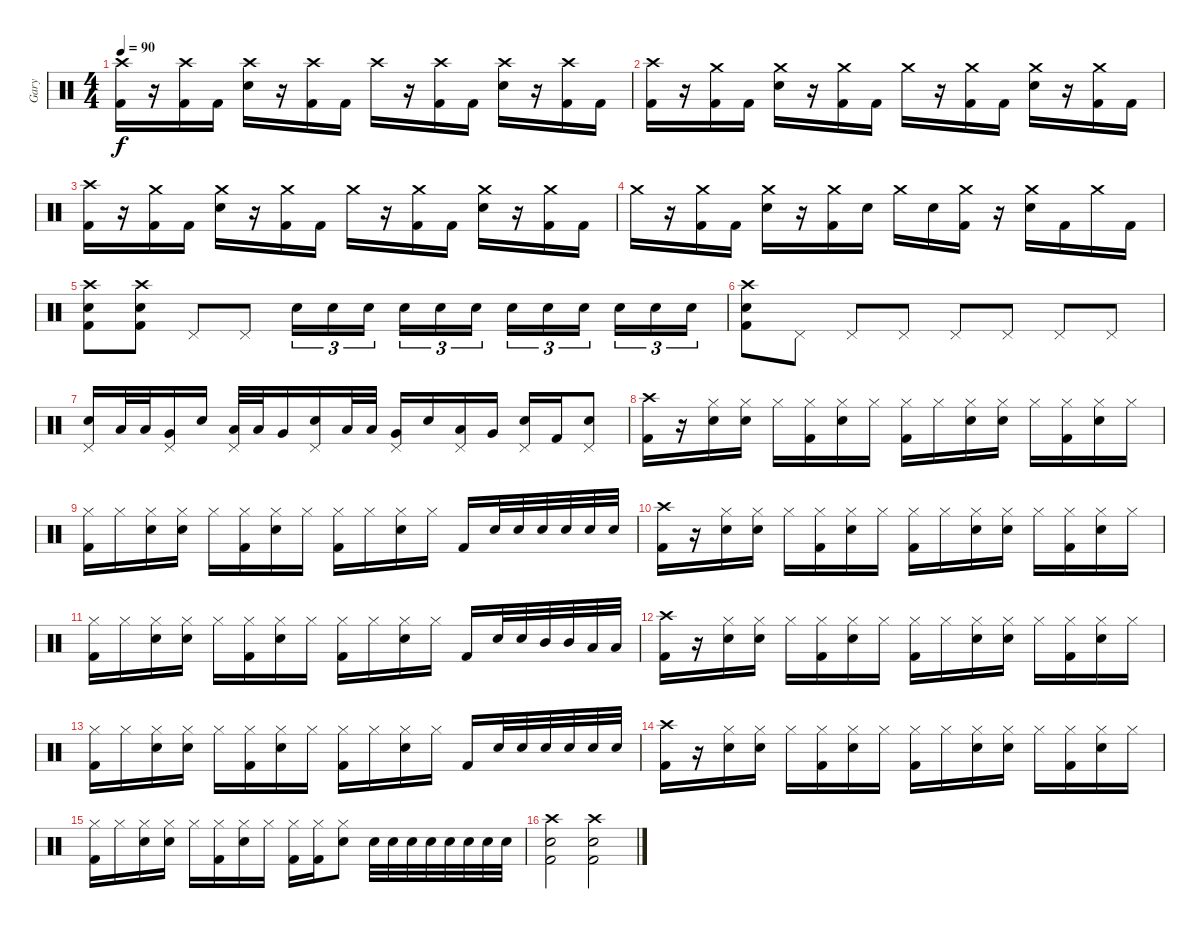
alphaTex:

\track ("Gary" "Gary") {instrument percussion}
\staff {score}
\articulation defaults
\ts (4 4)
\tempo 90
\clef neutral
\ks c
("Crash high (hit)" "Kick (hit) 2").16{dy f} r.16 ("Crash high (hit)" "Kick (hit) 2").16 "Kick (hit) 2".16 ("Crash high (hit)" "Electric Snare (hit)").16 r.16 ("Crash high (hit)" "Kick (hit) 2").16 "Kick (hit) 2".16 "Crash high (hit)".16 r.16 ("Crash high (hit)" "Kick (hit) 2").16 "Kick (hit) 2".16 ("Crash high (hit)" "Electric Snare (hit)").16 r.16 ("Crash high (hit)" "Kick (hit) 2").16 "Kick (hit) 2".16 |
("Crash high (hit)" "Kick (hit) 2").16 r.16 ("Crash medium (hit)" "Kick (hit) 2").16 "Kick (hit) 2".16 ("Crash medium (hit)" "Electric Snare (hit)").16 r.16 ("Crash medium (hit)" "Kick (hit) 2").16 "Kick (hit) 2".16 "Crash medium (hit)".16 r.16 ("Crash medium (hit)" "Kick (hit) 2").16 "Kick (hit) 2".16 ("Crash medium (hit)" "Electric Snare (hit)").16 r.16 ("Crash medium (hit)" "Kick (hit) 2").16 "Kick (hit) 2".16 |
("Crash high (hit)" "Kick (hit) 2").16 r.16 ("Crash medium (hit)" "Kick (hit) 2").16 "Kick (hit) 2".16 ("Crash medium (hit)" "Electric Snare (hit)").16 r.16 ("Crash medium (hit)" "Kick (hit) 2").16 "Kick (hit) 2".16 "Crash medium (hit)".16 r.16 ("Crash medium (hit)" "Kick (hit) 2").16 "Kick (hit) 2".16 ("Crash medium (hit)" "Electric Snare (hit)").16 r.16 ("Crash medium (hit)" "Kick (hit) 2").16 "Kick (hit) 2".16 |
"Crash medium (hit)".16 r.16 ("Crash medium (hit)" "Kick (hit) 2").16 "Kick (hit) 2".16 ("Crash medium (hit)" "Electric Snare (hit)").16 r.16 ("Crash medium (hit)" "Kick (hit) 2").16 "Electric Snare (hit)".16 "Crash medium (hit)".16 "Electric Snare (hit)".16 ("Crash medium (hit)" "Kick (hit) 2").16 r.16 ("Crash medium (hit)" "Electric Snare (hit)").16 "Kick (hit) 2".16 "Crash medium (hit)".16 "Kick (hit) 2".16 |
("Crash high (hit)" "Electric Snare (hit)" "Kick (hit) 2").8 ("Crash high (hit)" "Electric Snare (hit)" "Kick (hit) 2").8 "Pedal Hi-Hat (hit)".8 "Pedal Hi-Hat (hit)".8 "Electric Snare (hit)".16{tu (3 2)} "Electric Snare (hit)".16{tu (3 2)} "Electric Snare (hit)".16{tu (3 2)} "Electric Snare (hit)".16{tu (3 2)} "Electric Snare (hit)".16{tu (3 2)} "Electric Snare (hit)".16{tu (3 2)} "Electric Snare (hit)".16{tu (3 2)} "Electric Snare (hit)".16{tu (3 2)} "Electric Snare (hit)".16{tu (3 2)} "Electric Snare (hit)".16{tu (3 2)} "Electric Snare (hit)".16{tu (3 2)} "Electric Snare (hit)".16{tu (3 2)} |
("Crash high (hit)" "Electric Snare (hit)" "Kick (hit) 2").8 "Pedal Hi-Hat (hit)".8 "Pedal Hi-Hat (hit)".8 "Pedal Hi-Hat (hit)".8 "Pedal Hi-Hat (hit)".8 "Pedal Hi-Hat (hit)".8 "Pedal Hi-Hat (hit)".8 "Pedal Hi-Hat (hit)".8 |
("Pedal Hi-Hat (hit)" "Electric Snare (hit)").16 "Low Tom (hit)".32 "Low Tom (hit)".32 ("Pedal Hi-Hat (hit)" "Very Low Tom (hit)").16 "Electric Snare (hit)".16 ("Pedal Hi-Hat (hit)" "Low Tom (hit)").32 "Low Tom (hit)".32 "Very Low Tom (hit)".16 ("Pedal Hi-Hat (hit)" "Electric Snare (hit)").16 "Low Tom (hit)".32 "Low Tom (hit)".32 ("Pedal Hi-Hat (hit)" "Very Low Tom (hit)").16 "Electric Snare (hit)".16 ("Pedal Hi-Hat (hit)" "Low Tom (hit)").16 "Very Low Tom (hit)".16 ("Pedal Hi-Hat (hit)" "Electric Snare (hit)").16 "Kick (hit) 2".16 ("Pedal Hi-Hat (hit)" "Electric Snare (hit)").8 |
("Crash high (hit)" "Kick (hit) 2").16 r.16 ("Hi-Hat (closed)" "Electric Snare (hit)").16 ("Hi-Hat (closed)" "Electric Snare (hit)").16 "Hi-Hat (closed)".16 ("Hi-Hat (closed)" "Kick (hit) 2").16 ("Hi-Hat (closed)" "Electric Snare (hit)").16 "Hi-Hat (closed)".16 ("Hi-Hat (closed)" "Kick (hit) 2").16 "Hi-Hat (closed)".16 ("Hi-Hat (closed)" "Electric Snare (hit)").16 ("Hi-Hat (closed)" "Electric Snare (hit)").16 "Hi-Hat (closed)".16 ("Hi-Hat (closed)" "Kick (hit) 2").16 ("Hi-Hat (closed)" "Electric Snare (hit)").16 "Hi-Hat (closed)".16 |
("Hi-Hat (closed)" "Kick (hit) 2").16 "Hi-Hat (closed)".16 ("Hi-Hat (closed)" "Electric Snare (hit)").16 ("Hi-Hat (closed)" "Electric Snare (hit)").16 "Hi-Hat (closed)".16 ("Hi-Hat (closed)" "Kick (hit) 2").16 ("Hi-Hat (closed)" "Electric Snare (hit)").16 "Hi-Hat (closed)".16 ("Hi-Hat (closed)" "Kick (hit) 2").16 "Hi-Hat (closed)".16 ("Hi-Hat (closed)" "Electric Snare (hit)").16 "Hi-Hat (closed)".16 "Kick (hit) 2".16 "Electric Snare (hit)".32 "Electric Snare (hit)".32 "Electric Snare (hit)".32 "Electric Snare (hit)".32 "Electric Snare (hit)".32 "Electric Snare (hit)".32 |
("Crash high (hit)" "Kick (hit) 2").16 r.16 ("Hi-Hat (closed)" "Electric Snare (hit)").16 ("Hi-Hat (closed)" "Electric Snare (hit)").16 "Hi-Hat (closed)".16 ("Hi-Hat (closed)" "Kick (hit) 2").16 ("Hi-Hat (closed)" "Electric Snare (hit)").16 "Hi-Hat (closed)".16 ("Hi-Hat (closed)" "Kick (hit) 2").16 "Hi-Hat (closed)".16 ("Hi-Hat (closed)" "Electric Snare (hit)").16 ("Hi-Hat (closed)" "Electric Snare (hit)").16 "Hi-Hat (closed)".16 ("Hi-Hat (closed)" "Kick (hit) 2").16 ("Hi-Hat (closed)" "Electric Snare (hit)").16 "Hi-Hat (closed)".16 |
("Hi-Hat (closed)" "Kick (hit) 2").16 "Hi-Hat (closed)".16 ("Hi-Hat (closed)" "Electric Snare (hit)").16 ("Hi-Hat (closed)" "Electric Snare (hit)").16 "Hi-Hat (closed)".16 ("Hi-Hat (closed)" "Kick (hit) 2").16 ("Hi-Hat (closed)" "Electric Snare (hit)").16 "Hi-Hat (closed)".16 ("Hi-Hat (closed)" "Kick (hit) 2").16 "Hi-Hat (closed)".16 ("Hi-Hat (closed)" "Electric Snare (hit)").16 "Hi-Hat (closed)".16 "Kick (hit) 2".16 "Electric Snare (hit)".32 "Electric Snare (hit)".32 "Mid Tom (hit)".32 "Mid Tom (hit)".32 "Low Tom (hit)".32 "Low Tom (hit)".32 |
("Crash high (hit)" "Kick (hit) 2").16 r.16 ("Hi-Hat (closed)" "Electric Snare (hit)").16 ("Hi-Hat (closed)" "Electric Snare (hit)").16 "Hi-Hat (closed)".16 ("Hi-Hat (closed)" "Kick (hit) 2").16 ("Hi-Hat (closed)" "Electric Snare (hit)").16 "Hi-Hat (closed)".16 ("Hi-Hat (closed)" "Kick (hit) 2").16 "Hi-Hat (closed)".16 ("Hi-Hat (closed)" "Electric Snare (hit)").16 ("Hi-Hat (closed)" "Electric Snare (hit)").16 "Hi-Hat (closed)".16 ("Hi-Hat (closed)" "Kick (hit) 2").16 ("Hi-Hat (closed)" "Electric Snare (hit)").16 "Hi-Hat (closed)".16 |
("Hi-Hat (closed)" "Kick (hit) 2").16 "Hi-Hat (closed)".16 ("Hi-Hat (closed)" "Electric Snare (hit)").16 ("Hi-Hat (closed)" "Electric Snare (hit)").16 "Hi-Hat (closed)".16 ("Hi-Hat (closed)" "Kick (hit) 2").16 ("Hi-Hat (closed)" "Electric Snare (hit)").16 "Hi-Hat (closed)".16 ("Hi-Hat (closed)" "Kick (hit) 2").16 "Hi-Hat (closed)".16 ("Hi-Hat (closed)" "Electric Snare (hit)").16 "Hi-Hat (closed)".16 "Kick (hit) 2".16 "Electric Snare (hit)".32 "Electric Snare (hit)".32 "Electric Snare (hit)".32 "Electric Snare (hit)".32 "Electric Snare (hit)".32 "Electric Snare (hit)".32 |
("Crash high (hit)" "Kick (hit) 2").16 r.16 ("Hi-Hat (closed)" "Electric Snare (hit)").16 ("Hi-Hat (closed)" "Electric Snare (hit)").16 "Hi-Hat (closed)".16 ("Hi-Hat (closed)" "Kick (hit) 2").16 ("Hi-Hat (closed)" "Electric Snare (hit)").16 "Hi-Hat (closed)".16 ("Hi-Hat (closed)" "Kick (hit) 2").16 "Hi-Hat (closed)".16 ("Hi-Hat (closed)" "Electric Snare (hit)").16 ("Hi-Hat (closed)" "Electric Snare (hit)").16 "Hi-Hat (closed)".16 ("Hi-Hat (closed)" "Kick (hit) 2").16 ("Hi-Hat (closed)" "Electric Snare (hit)").16 "Hi-Hat (closed)".16 |
("Hi-Hat (closed)" "Kick (hit) 2").16 "Hi-Hat (closed)".16 ("Hi-Hat (closed)" "Electric Snare (hit)").16 ("Hi-Hat (closed)" "Electric Snare (hit)").16 "Hi-Hat (closed)".16 ("Hi-Hat (closed)" "Kick (hit) 2").16 ("Hi-Hat (closed)" "Electric Snare (hit)").16 "Hi-Hat (closed)".16 ("Hi-Hat (closed)" "Kick (hit) 2").16 ("Hi-Hat (closed)" "Kick (hit) 2").16 ("Hi-Hat (closed)" "Electric Snare (hit)").8 "Electric Snare (hit)".32 "Electric Snare (hit)".32 "Electric Snare (hit)".32 "Electric Snare (hit)".32 "Electric Snare (hit)".32 "Electric Snare (hit)".32 "Electric Snare (hit)".32 "Electric Snare (hit)".32 |
("Crash high (hit)" "Electric Snare (hit)" "Kick (hit) 2").2 ("Crash high (hit)" "Electric Snare (hit)" "Kick (hit) 2").2
